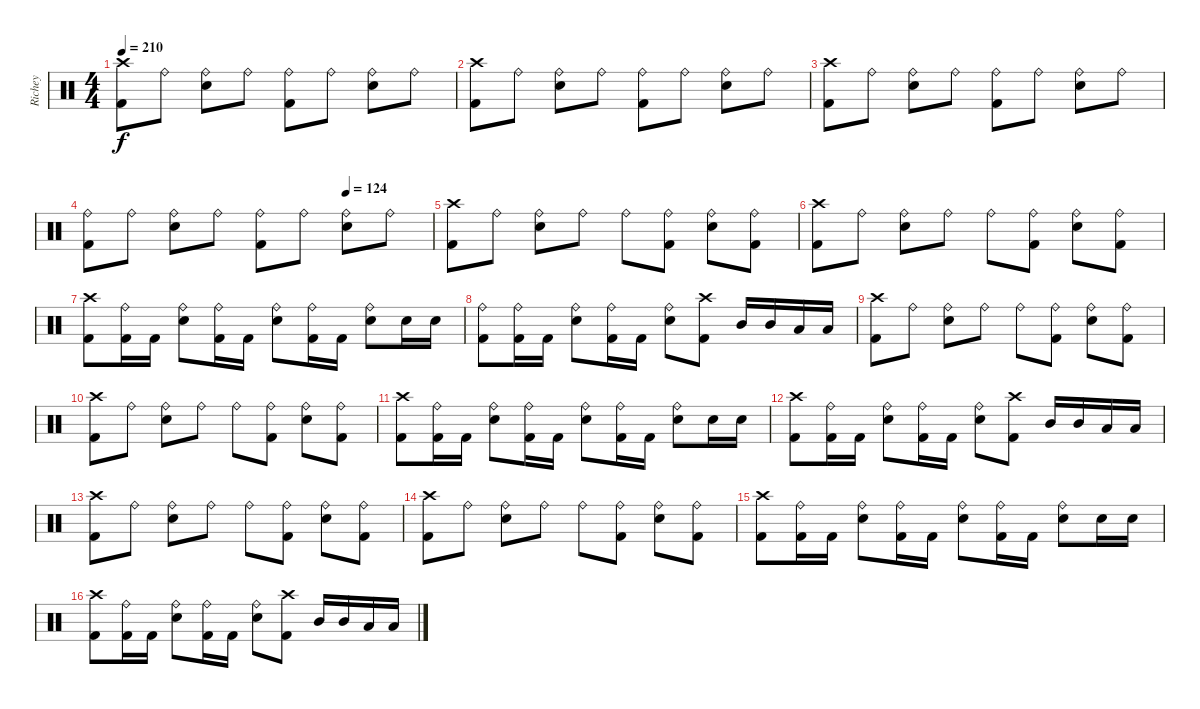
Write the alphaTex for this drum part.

\track ("Richey" "Richey") {instrument percussion}
\staff {score}
\articulation defaults
\ts (4 4)
\tempo 210
\clef neutral
\ks c
("Crash high (hit)" "Kick (hit) 2").8{dy f} "Ride (bell)".8 ("Ride (bell)" "Snare (hit) 2").8 "Ride (bell)".8 ("Ride (bell)" "Kick (hit) 2").8 "Ride (bell)".8 ("Ride (bell)" "Snare (hit) 2").8 "Ride (bell)".8 |
("Crash high (hit)" "Kick (hit) 2").8 "Ride (bell)".8 ("Ride (bell)" "Snare (hit) 2").8 "Ride (bell)".8 ("Ride (bell)" "Kick (hit) 2").8 "Ride (bell)".8 ("Ride (bell)" "Snare (hit) 2").8 "Ride (bell)".8 |
("Crash high (hit)" "Kick (hit) 2").8 "Ride (bell)".8 ("Ride (bell)" "Snare (hit) 2").8 "Ride (bell)".8 ("Ride (bell)" "Kick (hit) 2").8 "Ride (bell)".8 ("Ride (bell)" "Snare (hit) 2").8 "Ride (bell)".8 |
\tempo (124 0.75)
("Ride (bell)" "Kick (hit) 2").8 "Ride (bell)".8 ("Ride (bell)" "Snare (hit) 2").8 "Ride (bell)".8 ("Ride (bell)" "Kick (hit) 2").8 "Ride (bell)".8 ("Ride (bell)" "Snare (hit) 2").8 "Ride (bell)".8 |
("Crash high (hit)" "Kick (hit) 2").8 "Ride (bell)".8 ("Ride (bell)" "Snare (hit) 2").8 "Ride (bell)".8 "Ride (bell)".8 ("Ride (bell)" "Kick (hit) 2").8 ("Ride (bell)" "Snare (hit) 2").8 ("Ride (bell)" "Kick (hit) 2").8 |
("Crash high (hit)" "Kick (hit) 2").8 "Ride (bell)".8 ("Ride (bell)" "Snare (hit) 2").8 "Ride (bell)".8 "Ride (bell)".8 ("Ride (bell)" "Kick (hit) 2").8 ("Ride (bell)" "Snare (hit) 2").8 ("Ride (bell)" "Kick (hit) 2").8 |
("Crash high (hit)" "Kick (hit) 2").8 ("Ride (bell)" "Kick (hit) 2").16 "Kick (hit) 2".16 ("Ride (bell)" "Snare (hit) 2").8 ("Ride (bell)" "Kick (hit) 2").16 "Kick (hit) 2".16 ("Ride (bell)" "Snare (hit) 2").8 ("Ride (bell)" "Kick (hit) 2").16 "Kick (hit) 2".16 ("Ride (bell)" "Snare (hit) 2").8 "Snare (hit) 2".16 "Snare (hit) 2".16 |
("Ride (bell)" "Kick (hit) 2").8 ("Ride (bell)" "Kick (hit) 2").16 "Kick (hit) 2".16 ("Ride (bell)" "Snare (hit) 2").8 ("Ride (bell)" "Kick (hit) 2").16 "Kick (hit) 2".16 ("Ride (bell)" "Snare (hit) 2").8 ("Crash high (hit)" "Kick (hit) 2").8 "Mid Tom (hit)".16 "Mid Tom (hit)".16 "Low Tom (hit)".16 "Low Tom (hit)".16 |
("Crash high (hit)" "Kick (hit) 2").8 "Ride (bell)".8 ("Ride (bell)" "Snare (hit) 2").8 "Ride (bell)".8 "Ride (bell)".8 ("Ride (bell)" "Kick (hit) 2").8 ("Ride (bell)" "Snare (hit) 2").8 ("Ride (bell)" "Kick (hit) 2").8 |
("Crash high (hit)" "Kick (hit) 2").8 "Ride (bell)".8 ("Ride (bell)" "Snare (hit) 2").8 "Ride (bell)".8 "Ride (bell)".8 ("Ride (bell)" "Kick (hit) 2").8 ("Ride (bell)" "Snare (hit) 2").8 ("Ride (bell)" "Kick (hit) 2").8 |
("Crash high (hit)" "Kick (hit) 2").8 ("Ride (bell)" "Kick (hit) 2").16 "Kick (hit) 2".16 ("Ride (bell)" "Snare (hit) 2").8 ("Ride (bell)" "Kick (hit) 2").16 "Kick (hit) 2".16 ("Ride (bell)" "Snare (hit) 2").8 ("Ride (bell)" "Kick (hit) 2").16 "Kick (hit) 2".16 ("Ride (bell)" "Snare (hit) 2").8 "Snare (hit) 2".16 "Snare (hit) 2".16 |
("Crash high (hit)" "Kick (hit) 2").8 ("Ride (bell)" "Kick (hit) 2").16 "Kick (hit) 2".16 ("Ride (bell)" "Snare (hit) 2").8 ("Ride (bell)" "Kick (hit) 2").16 "Kick (hit) 2".16 ("Ride (bell)" "Snare (hit) 2").8 ("Crash high (hit)" "Kick (hit) 2").8 "Mid Tom (hit)".16 "Mid Tom (hit)".16 "Low Tom (hit)".16 "Low Tom (hit)".16 |
("Crash high (hit)" "Kick (hit) 2").8 "Ride (bell)".8 ("Ride (bell)" "Snare (hit) 2").8 "Ride (bell)".8 "Ride (bell)".8 ("Ride (bell)" "Kick (hit) 2").8 ("Ride (bell)" "Snare (hit) 2").8 ("Ride (bell)" "Kick (hit) 2").8 |
("Crash high (hit)" "Kick (hit) 2").8 "Ride (bell)".8 ("Ride (bell)" "Snare (hit) 2").8 "Ride (bell)".8 "Ride (bell)".8 ("Ride (bell)" "Kick (hit) 2").8 ("Ride (bell)" "Snare (hit) 2").8 ("Ride (bell)" "Kick (hit) 2").8 |
("Crash high (hit)" "Kick (hit) 2").8 ("Ride (bell)" "Kick (hit) 2").16 "Kick (hit) 2".16 ("Ride (bell)" "Snare (hit) 2").8 ("Ride (bell)" "Kick (hit) 2").16 "Kick (hit) 2".16 ("Ride (bell)" "Snare (hit) 2").8 ("Ride (bell)" "Kick (hit) 2").16 "Kick (hit) 2".16 ("Ride (bell)" "Snare (hit) 2").8 "Snare (hit) 2".16 "Snare (hit) 2".16 |
("Crash high (hit)" "Kick (hit) 2").8 ("Ride (bell)" "Kick (hit) 2").16 "Kick (hit) 2".16 ("Ride (bell)" "Snare (hit) 2").8 ("Ride (bell)" "Kick (hit) 2").16 "Kick (hit) 2".16 ("Ride (bell)" "Snare (hit) 2").8 ("Crash high (hit)" "Kick (hit) 2").8 "Mid Tom (hit)".16 "Mid Tom (hit)".16 "Low Tom (hit)".16 "Low Tom (hit)".16
